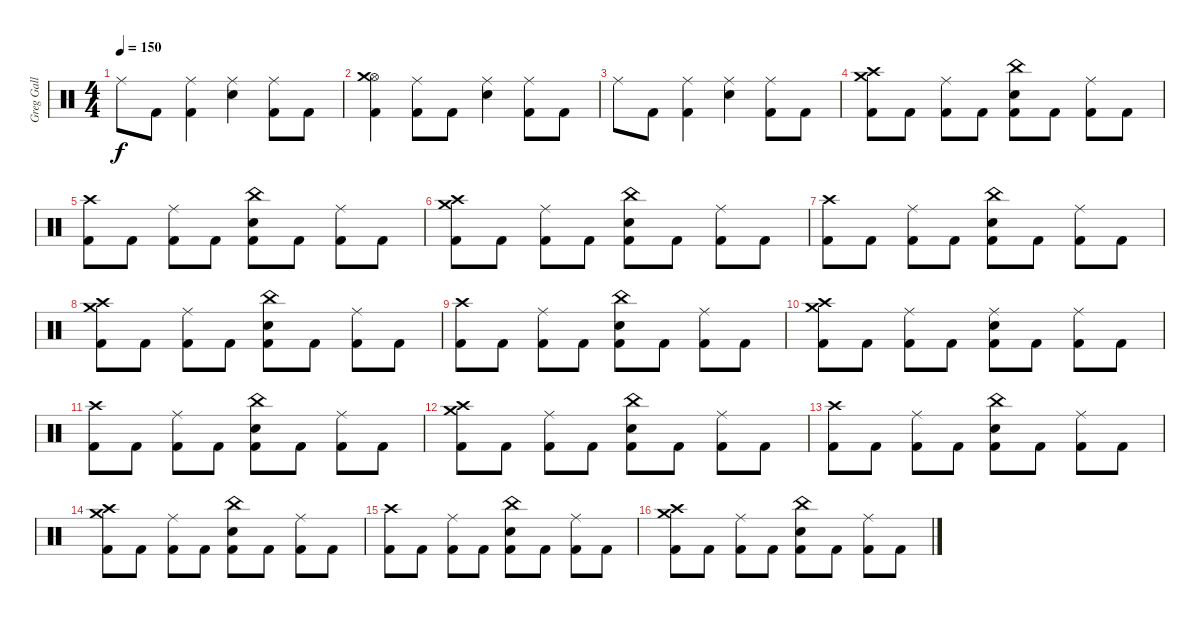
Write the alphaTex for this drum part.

\track ("Greg Gall" "Greg Gall") {instrument percussion}
\staff {score}
\articulation defaults
\ts (4 4)
\tempo 150
\clef neutral
\ks c "Ride (middle)".8{dy f} "Kick (hit) 2".8
("Ride (middle)" "Kick (hit) 2").4 ("Ride (middle)" "Electric Snare (hit)").4 ("Ride (middle)" "Kick (hit) 2").8 "Kick (hit) 2".8 |
("Hi-Hat (open)" "Crash medium (hit)" "Kick (hit) 2").4 ("Ride (middle)" "Kick (hit) 2").8 "Kick (hit) 2".8 ("Ride (middle)" "Electric Snare (hit)").4 ("Ride (middle)" "Kick (hit) 2").8 "Kick (hit) 2".8 |
"Ride (middle)".8 "Kick (hit) 2".8 ("Ride (middle)" "Kick (hit) 2").4 ("Ride (middle)" "Electric Snare (hit)").4 ("Ride (middle)" "Kick (hit) 2").8 "Kick (hit) 2".8 |
("Crash high (hit)" "Crash medium (hit)" "Kick (hit) 2").8 "Kick (hit) 2".8 ("Ride (middle)" "Kick (hit) 2").8 "Kick (hit) 2".8 ("China (hit)" "Electric Snare (hit)" "Kick (hit) 2").8 "Kick (hit) 2".8 ("Ride (middle)" "Kick (hit) 2").8 "Kick (hit) 2".8 |
("Crash high (hit)" "Kick (hit) 2").8 "Kick (hit) 2".8 ("Ride (middle)" "Kick (hit) 2").8 "Kick (hit) 2".8 ("China (hit)" "Electric Snare (hit)" "Kick (hit) 2").8 "Kick (hit) 2".8 ("Ride (middle)" "Kick (hit) 2").8 "Kick (hit) 2".8 |
("Crash high (hit)" "Crash medium (hit)" "Kick (hit) 2").8 "Kick (hit) 2".8 ("Ride (middle)" "Kick (hit) 2").8 "Kick (hit) 2".8 ("China (hit)" "Electric Snare (hit)" "Kick (hit) 2").8 "Kick (hit) 2".8 ("Ride (middle)" "Kick (hit) 2").8 "Kick (hit) 2".8 |
("Crash high (hit)" "Kick (hit) 2").8 "Kick (hit) 2".8 ("Ride (middle)" "Kick (hit) 2").8 "Kick (hit) 2".8 ("China (hit)" "Electric Snare (hit)" "Kick (hit) 2").8 "Kick (hit) 2".8 ("Ride (middle)" "Kick (hit) 2").8 "Kick (hit) 2".8 |
("Crash high (hit)" "Crash medium (hit)" "Kick (hit) 2").8 "Kick (hit) 2".8 ("Ride (middle)" "Kick (hit) 2").8 "Kick (hit) 2".8 ("China (hit)" "Electric Snare (hit)" "Kick (hit) 2").8 "Kick (hit) 2".8 ("Ride (middle)" "Kick (hit) 2").8 "Kick (hit) 2".8 |
("Crash high (hit)" "Kick (hit) 2").8 "Kick (hit) 2".8 ("Ride (middle)" "Kick (hit) 2").8 "Kick (hit) 2".8 ("China (hit)" "Electric Snare (hit)" "Kick (hit) 2").8 "Kick (hit) 2".8 ("Ride (middle)" "Kick (hit) 2").8 "Kick (hit) 2".8 |
("Crash high (hit)" "Crash medium (hit)" "Kick (hit) 2").8 "Kick (hit) 2".8 ("Ride (middle)" "Kick (hit) 2").8 "Kick (hit) 2".8 ("Ride (middle)" "Electric Snare (hit)" "Kick (hit) 2").8 "Kick (hit) 2".8 ("Ride (middle)" "Kick (hit) 2").8 "Kick (hit) 2".8 |
("Crash high (hit)" "Kick (hit) 2").8 "Kick (hit) 2".8 ("Ride (middle)" "Kick (hit) 2").8 "Kick (hit) 2".8 ("China (hit)" "Electric Snare (hit)" "Kick (hit) 2").8 "Kick (hit) 2".8 ("Ride (middle)" "Kick (hit) 2").8 "Kick (hit) 2".8 |
("Crash high (hit)" "Crash medium (hit)" "Kick (hit) 2").8 "Kick (hit) 2".8 ("Ride (middle)" "Kick (hit) 2").8 "Kick (hit) 2".8 ("China (hit)" "Electric Snare (hit)" "Kick (hit) 2").8 "Kick (hit) 2".8 ("Ride (middle)" "Kick (hit) 2").8 "Kick (hit) 2".8 |
("Crash high (hit)" "Kick (hit) 2").8 "Kick (hit) 2".8 ("Ride (middle)" "Kick (hit) 2").8 "Kick (hit) 2".8 ("China (hit)" "Electric Snare (hit)" "Kick (hit) 2").8 "Kick (hit) 2".8 ("Ride (middle)" "Kick (hit) 2").8 "Kick (hit) 2".8 |
("Crash high (hit)" "Crash medium (hit)" "Kick (hit) 2").8 "Kick (hit) 2".8 ("Ride (middle)" "Kick (hit) 2").8 "Kick (hit) 2".8 ("China (hit)" "Electric Snare (hit)" "Kick (hit) 2").8 "Kick (hit) 2".8 ("Ride (middle)" "Kick (hit) 2").8 "Kick (hit) 2".8 |
("Crash high (hit)" "Kick (hit) 2").8 "Kick (hit) 2".8 ("Ride (middle)" "Kick (hit) 2").8 "Kick (hit) 2".8 ("China (hit)" "Electric Snare (hit)" "Kick (hit) 2").8 "Kick (hit) 2".8 ("Ride (middle)" "Kick (hit) 2").8 "Kick (hit) 2".8 |
("Crash high (hit)" "Crash medium (hit)" "Kick (hit) 2").8 "Kick (hit) 2".8 ("Ride (middle)" "Kick (hit) 2").8 "Kick (hit) 2".8 ("China (hit)" "Electric Snare (hit)" "Kick (hit) 2").8 "Kick (hit) 2".8 ("Ride (middle)" "Kick (hit) 2").8 "Kick (hit) 2".8
